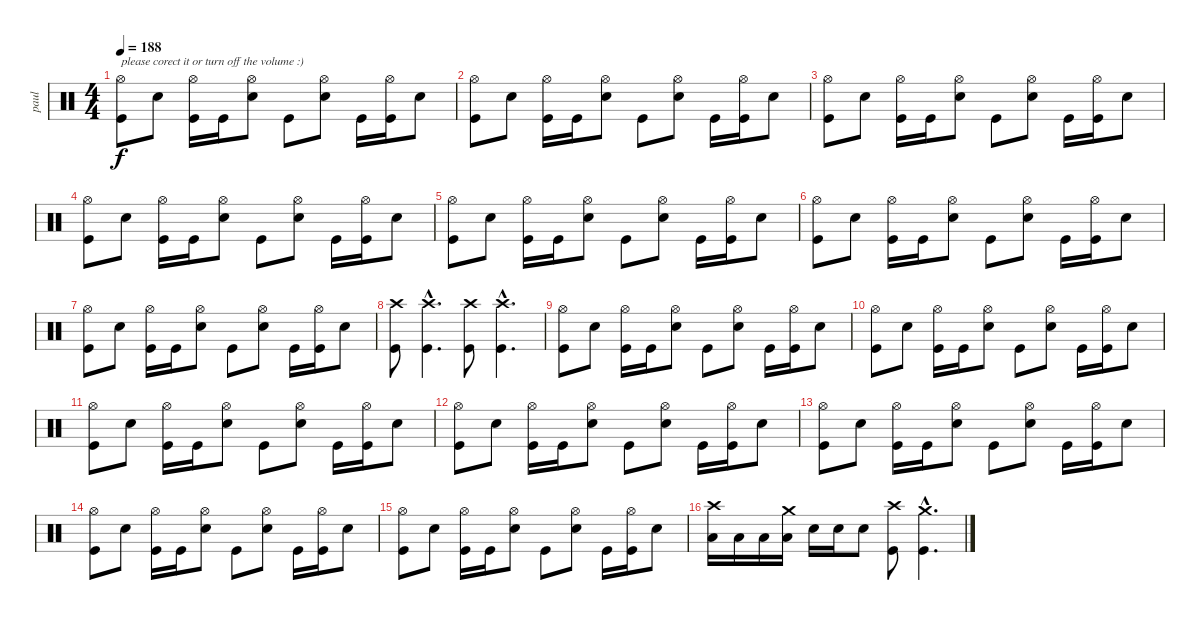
\track ("paul" "paul") {instrument percussion}
\staff {score}
\articulation defaults
\ts (4 4)
\tempo 188
\clef neutral
\ks c
("Hi-Hat (open)" "Kick (hit)").8{txt "please corect it or turn off the volume :)" dy f} "Snare (hit) 2".8 ("Hi-Hat (open)" "Kick (hit)").16 "Kick (hit)".16 ("Hi-Hat (open)" "Snare (hit) 2").8 "Kick (hit)".8 ("Hi-Hat (open)" "Snare (hit) 2").8 "Kick (hit)".16 ("Hi-Hat (open)" "Kick (hit)").16 "Snare (hit) 2".8 |
("Hi-Hat (open)" "Kick (hit)").8 "Snare (hit) 2".8 ("Hi-Hat (open)" "Kick (hit)").16 "Kick (hit)".16 ("Hi-Hat (open)" "Snare (hit) 2").8 "Kick (hit)".8 ("Hi-Hat (open)" "Snare (hit) 2").8 "Kick (hit)".16 ("Hi-Hat (open)" "Kick (hit)").16 "Snare (hit) 2".8 |
("Hi-Hat (open)" "Kick (hit)").8 "Snare (hit) 2".8 ("Hi-Hat (open)" "Kick (hit)").16 "Kick (hit)".16 ("Hi-Hat (open)" "Snare (hit) 2").8 "Kick (hit)".8 ("Hi-Hat (open)" "Snare (hit) 2").8 "Kick (hit)".16 ("Hi-Hat (open)" "Kick (hit)").16 "Snare (hit) 2".8 |
("Hi-Hat (open)" "Kick (hit)").8 "Snare (hit) 2".8 ("Hi-Hat (open)" "Kick (hit)").16 "Kick (hit)".16 ("Hi-Hat (open)" "Snare (hit) 2").8 "Kick (hit)".8 ("Hi-Hat (open)" "Snare (hit) 2").8 "Kick (hit)".16 ("Hi-Hat (open)" "Kick (hit)").16 "Snare (hit) 2".8 |
("Hi-Hat (open)" "Kick (hit)").8 "Snare (hit) 2".8 ("Hi-Hat (open)" "Kick (hit)").16 "Kick (hit)".16 ("Hi-Hat (open)" "Snare (hit) 2").8 "Kick (hit)".8 ("Hi-Hat (open)" "Snare (hit) 2").8 "Kick (hit)".16 ("Hi-Hat (open)" "Kick (hit)").16 "Snare (hit) 2".8 |
("Hi-Hat (open)" "Kick (hit)").8 "Snare (hit) 2".8 ("Hi-Hat (open)" "Kick (hit)").16 "Kick (hit)".16 ("Hi-Hat (open)" "Snare (hit) 2").8 "Kick (hit)".8 ("Hi-Hat (open)" "Snare (hit) 2").8 "Kick (hit)".16 ("Hi-Hat (open)" "Kick (hit)").16 "Snare (hit) 2".8 |
("Hi-Hat (open)" "Kick (hit)").8 "Snare (hit) 2".8 ("Hi-Hat (open)" "Kick (hit)").16 "Kick (hit)".16 ("Hi-Hat (open)" "Snare (hit) 2").8 "Kick (hit)".8 ("Hi-Hat (open)" "Snare (hit) 2").8 "Kick (hit)".16 ("Hi-Hat (open)" "Kick (hit)").16 "Snare (hit) 2".8 |
("Crash high (hit)" "Kick (hit)").8 ("Crash high (hit)"{hac} "Kick (hit)"{hac}).4{d} ("Crash high (hit)" "Kick (hit)").8 ("Crash high (hit)"{hac} "Kick (hit)"{hac}).4{d} |
("Hi-Hat (open)" "Kick (hit)").8 "Snare (hit) 2".8 ("Hi-Hat (open)" "Kick (hit)").16 "Kick (hit)".16 ("Hi-Hat (open)" "Snare (hit) 2").8 "Kick (hit)".8 ("Hi-Hat (open)" "Snare (hit) 2").8 "Kick (hit)".16 ("Hi-Hat (open)" "Kick (hit)").16 "Snare (hit) 2".8 |
("Hi-Hat (open)" "Kick (hit)").8 "Snare (hit) 2".8 ("Hi-Hat (open)" "Kick (hit)").16 "Kick (hit)".16 ("Hi-Hat (open)" "Snare (hit) 2").8 "Kick (hit)".8 ("Hi-Hat (open)" "Snare (hit) 2").8 "Kick (hit)".16 ("Hi-Hat (open)" "Kick (hit)").16 "Snare (hit) 2".8 |
("Hi-Hat (open)" "Kick (hit)").8 "Snare (hit) 2".8 ("Hi-Hat (open)" "Kick (hit)").16 "Kick (hit)".16 ("Hi-Hat (open)" "Snare (hit) 2").8 "Kick (hit)".8 ("Hi-Hat (open)" "Snare (hit) 2").8 "Kick (hit)".16 ("Hi-Hat (open)" "Kick (hit)").16 "Snare (hit) 2".8 |
("Hi-Hat (open)" "Kick (hit)").8 "Snare (hit) 2".8 ("Hi-Hat (open)" "Kick (hit)").16 "Kick (hit)".16 ("Hi-Hat (open)" "Snare (hit) 2").8 "Kick (hit)".8 ("Hi-Hat (open)" "Snare (hit) 2").8 "Kick (hit)".16 ("Hi-Hat (open)" "Kick (hit)").16 "Snare (hit) 2".8 |
("Hi-Hat (open)" "Kick (hit)").8 "Snare (hit) 2".8 ("Hi-Hat (open)" "Kick (hit)").16 "Kick (hit)".16 ("Hi-Hat (open)" "Snare (hit) 2").8 "Kick (hit)".8 ("Hi-Hat (open)" "Snare (hit) 2").8 "Kick (hit)".16 ("Hi-Hat (open)" "Kick (hit)").16 "Snare (hit) 2".8 |
("Hi-Hat (open)" "Kick (hit)").8 "Snare (hit) 2".8 ("Hi-Hat (open)" "Kick (hit)").16 "Kick (hit)".16 ("Hi-Hat (open)" "Snare (hit) 2").8 "Kick (hit)".8 ("Hi-Hat (open)" "Snare (hit) 2").8 "Kick (hit)".16 ("Hi-Hat (open)" "Kick (hit)").16 "Snare (hit) 2".8 |
("Hi-Hat (open)" "Kick (hit)").8 "Snare (hit) 2".8 ("Hi-Hat (open)" "Kick (hit)").16 "Kick (hit)".16 ("Hi-Hat (open)" "Snare (hit) 2").8 "Kick (hit)".8 ("Hi-Hat (open)" "Snare (hit) 2").8 "Kick (hit)".16 ("Hi-Hat (open)" "Kick (hit)").16 "Snare (hit) 2".8 |
("Crash high (hit)" "Low Tom (hit)").16 "Low Tom (hit)".16 "Low Tom (hit)".16 ("Crash medium (hit)" "Low Tom (hit)").16 "Snare (hit) 2".16 "Snare (hit) 2".16 "Snare (hit) 2".8 ("Crash high (hit)" "Kick (hit)").8 ("Crash medium (hit)"{hac} "Kick (hit)"{hac}).4{d}
